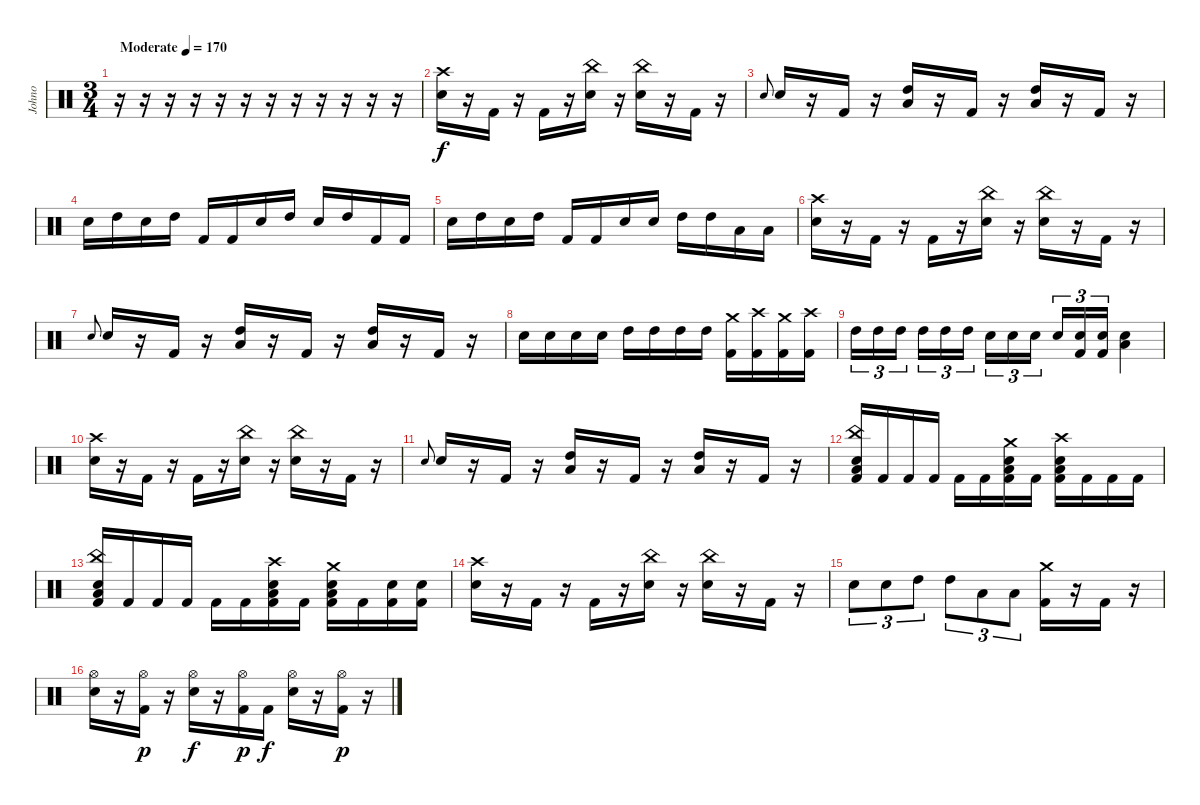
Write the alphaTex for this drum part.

\track ("Johno" "Johno") {instrument percussion}
\staff {score}
\articulation defaults
\ts (3 4)
\tempo (170 "Moderate")
\clef neutral
\ks c
r.16{dy f} r.16 r.16 r.16 r.16 r.16 r.16 r.16 r.16 r.16 r.16 r.16 |
("Crash high (hit)" "Electric Snare (hit)").16 r.16 "Kick (hit) 2".16 r.16 "Kick (hit) 2".16 r.16 ("China (hit)" "Electric Snare (hit)").16 r.16 ("China (hit)" "Electric Snare (hit)").16 r.16 "Kick (hit) 2".16 r.16 |
"Electric Snare (hit)".8{gr onbeat} "Electric Snare (hit)".16 r.16 "Kick (hit) 2".16 r.16 ("Low Floor Tom (hit)" "High Tom (hit)").16 r.16 "Kick (hit) 2".16 r.16 ("Low Floor Tom (hit)" "High Tom (hit)").16 r.16 "Kick (hit) 2".16 r.16 |
"Electric Snare (hit)".16 "High Tom (hit)".16 "Electric Snare (hit)".16 "High Tom (hit)".16 "Kick (hit) 2".16 "Kick (hit) 2".16 "Electric Snare (hit)".16 "High Tom (hit)".16 "Electric Snare (hit)".16 "High Tom (hit)".16 "Kick (hit) 2".16 "Kick (hit) 2".16 |
"Electric Snare (hit)".16 "High Tom (hit)".16 "Electric Snare (hit)".16 "High Tom (hit)".16 "Kick (hit) 2".16 "Kick (hit) 2".16 "Electric Snare (hit)".16 "Electric Snare (hit)".16 "High Tom (hit)".16 "High Tom (hit)".16 "Low Floor Tom (hit)".16 "Low Floor Tom (hit)".16 |
("Crash high (hit)" "Electric Snare (hit)").16 r.16 "Kick (hit) 2".16 r.16 "Kick (hit) 2".16 r.16 ("China (hit)" "Electric Snare (hit)").16 r.16 ("China (hit)" "Electric Snare (hit)").16 r.16 "Kick (hit) 2".16 r.16 |
"Electric Snare (hit)".8{gr onbeat} "Electric Snare (hit)".16 r.16 "Kick (hit) 2".16 r.16 ("Low Floor Tom (hit)" "High Tom (hit)").16 r.16 "Kick (hit) 2".16 r.16 ("Low Floor Tom (hit)" "High Tom (hit)").16 r.16 "Kick (hit) 2".16 r.16 |
"Electric Snare (hit)".16 "Electric Snare (hit)".16 "Electric Snare (hit)".16 "Electric Snare (hit)".16 "High Tom (hit)".16 "High Tom (hit)".16 "High Tom (hit)".16 "High Tom (hit)".16 ("Crash medium (hit)" "Kick (hit) 2").16 ("Crash high (hit)" "Kick (hit) 2").16 ("Crash medium (hit)" "Kick (hit) 2").16 ("Crash high (hit)" "Kick (hit) 2").16 |
"High Tom (hit)".16{tu (3 2)} "High Tom (hit)".16{tu (3 2)} "High Tom (hit)".16{tu (3 2) beam splitsecondary} "High Tom (hit)".16{tu (3 2)} "High Tom (hit)".16{tu (3 2)} "High Tom (hit)".16{tu (3 2)} "Electric Snare (hit)".16{tu (3 2)} "Electric Snare (hit)".16{tu (3 2)} "Electric Snare (hit)".16{tu (3 2) beam splitsecondary} "Electric Snare (hit)".16{tu (3 2)} ("Electric Snare (hit)" "Kick (hit) 2").16{tu (3 2)} ("Electric Snare (hit)" "Kick (hit) 2").16{tu (3 2)} ("Low Floor Tom (hit)" "Electric Snare (hit)").4 |
("Crash high (hit)" "Electric Snare (hit)").16 r.16 "Kick (hit) 2".16 r.16 "Kick (hit) 2".16 r.16 ("China (hit)" "Electric Snare (hit)").16 r.16 ("China (hit)" "Electric Snare (hit)").16 r.16 "Kick (hit) 2".16 r.16 |
"Electric Snare (hit)".8{gr onbeat} "Electric Snare (hit)".16 r.16 "Kick (hit) 2".16 r.16 ("Low Floor Tom (hit)" "High Tom (hit)").16 r.16 "Kick (hit) 2".16 r.16 ("Low Floor Tom (hit)" "High Tom (hit)").16 r.16 "Kick (hit) 2".16 r.16 |
("Low Floor Tom (hit)" "Electric Snare (hit)" "China (hit)" "Kick (hit) 2").16 "Kick (hit) 2".16 "Kick (hit) 2".16 "Kick (hit) 2".16 "Kick (hit) 2".16 "Kick (hit) 2".16 ("Crash medium (hit)" "Low Floor Tom (hit)" "Electric Snare (hit)" "Kick (hit) 2").16 "Kick (hit) 2".16 ("Crash high (hit)" "Low Floor Tom (hit)" "Electric Snare (hit)" "Kick (hit) 2").16 "Kick (hit) 2".16 "Kick (hit) 2".16 "Kick (hit) 2".16 |
("China (hit)" "Low Floor Tom (hit)" "Electric Snare (hit)" "Kick (hit) 2").16 "Kick (hit) 2".16 "Kick (hit) 2".16 "Kick (hit) 2".16 "Kick (hit) 2".16 "Kick (hit) 2".16 ("Crash high (hit)" "Low Floor Tom (hit)" "Electric Snare (hit)" "Kick (hit) 2").16 "Kick (hit) 2".16 ("Crash medium (hit)" "Low Floor Tom (hit)" "Electric Snare (hit)" "Kick (hit) 2").16 "Kick (hit) 2".16 ("Electric Snare (hit)" "Kick (hit) 2").16 ("Electric Snare (hit)" "Kick (hit) 2").16 |
("Crash high (hit)" "Electric Snare (hit)").16 r.16 "Kick (hit) 2".16 r.16 "Kick (hit) 2".16 r.16 ("China (hit)" "Electric Snare (hit)").16 r.16 ("China (hit)" "Electric Snare (hit)").16 r.16 "Kick (hit) 2".16 r.16 |
"Electric Snare (hit)".8{tu (3 2)} "Electric Snare (hit)".8{tu (3 2)} "High Tom (hit)".8{tu (3 2)} "High Tom (hit)".8{tu (3 2)} "Low Floor Tom (hit)".8{tu (3 2)} "Low Floor Tom (hit)".8{tu (3 2)} ("Crash medium (hit)" "Kick (hit) 2").16 r.16 "Kick (hit) 2".16 r.16 |
("Hi-Hat (open)" "Electric Snare (hit)").16 r.16 ("Hi-Hat (open)" "Kick (hit) 2").16{dy p} r.16 ("Hi-Hat (open)" "Electric Snare (hit)").16{dy f} r.16 ("Hi-Hat (open)" "Kick (hit) 2").16{dy p} "Kick (hit) 2".16{dy f} ("Hi-Hat (open)" "Electric Snare (hit)").16 r.16 ("Hi-Hat (open)" "Kick (hit) 2").16{dy p} r.16
